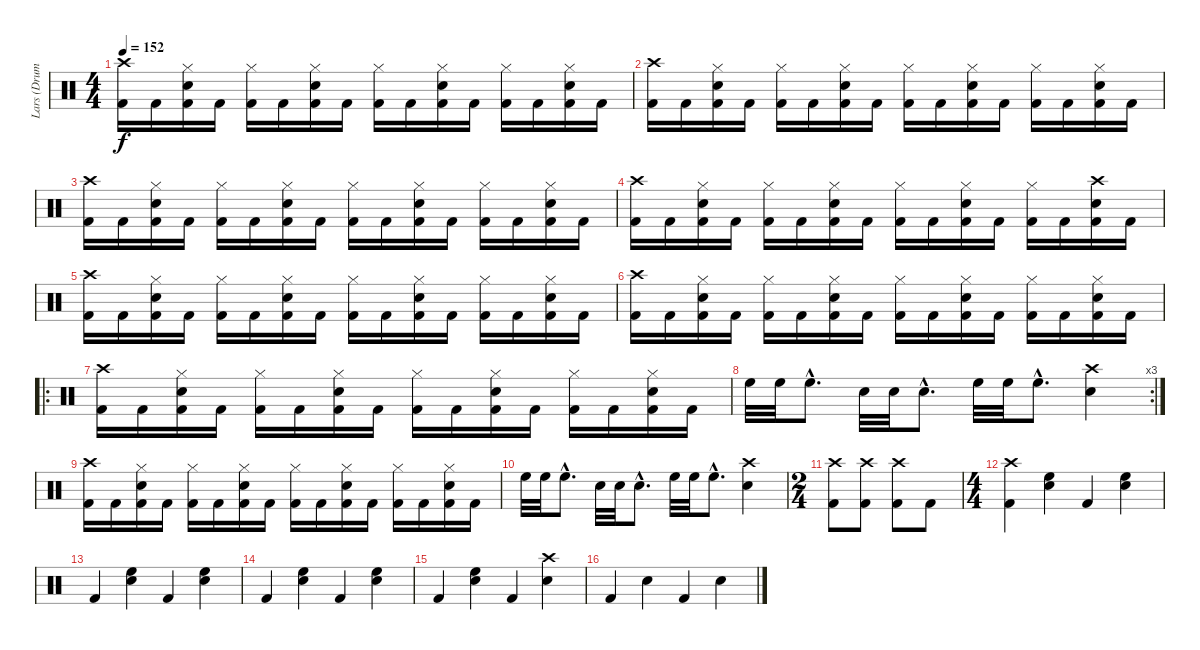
\track ("Lars (Drums)" "Lars (Drum") {instrument percussion}
\staff {score}
\articulation defaults
\ts (4 4)
\tempo 152
\clef neutral
\ks c
("Crash high (hit)" "Kick (hit) 2").16{dy f} "Kick (hit) 2".16 ("Hi-Hat (closed)" "Kick (hit) 2" "Snare (hit) 2").16 "Kick (hit) 2".16 ("Hi-Hat (closed)" "Kick (hit) 2").16 "Kick (hit) 2".16 ("Hi-Hat (closed)" "Kick (hit) 2" "Snare (hit) 2").16 "Kick (hit) 2".16 ("Hi-Hat (closed)" "Kick (hit) 2").16 "Kick (hit) 2".16 ("Hi-Hat (closed)" "Kick (hit) 2" "Snare (hit) 2").16 "Kick (hit) 2".16 ("Hi-Hat (closed)" "Kick (hit) 2").16 "Kick (hit) 2".16 ("Hi-Hat (closed)" "Kick (hit) 2" "Snare (hit) 2").16 "Kick (hit) 2".16 |
("Crash high (hit)" "Kick (hit) 2").16 "Kick (hit) 2".16 ("Hi-Hat (closed)" "Kick (hit) 2" "Snare (hit) 2").16 "Kick (hit) 2".16 ("Hi-Hat (closed)" "Kick (hit) 2").16 "Kick (hit) 2".16 ("Hi-Hat (closed)" "Kick (hit) 2" "Snare (hit) 2").16 "Kick (hit) 2".16 ("Hi-Hat (closed)" "Kick (hit) 2").16 "Kick (hit) 2".16 ("Hi-Hat (closed)" "Kick (hit) 2" "Snare (hit) 2").16 "Kick (hit) 2".16 ("Hi-Hat (closed)" "Kick (hit) 2").16 "Kick (hit) 2".16 ("Hi-Hat (closed)" "Kick (hit) 2" "Snare (hit) 2").16 "Kick (hit) 2".16 |
("Crash high (hit)" "Kick (hit) 2").16 "Kick (hit) 2".16 ("Hi-Hat (closed)" "Kick (hit) 2" "Snare (hit) 2").16 "Kick (hit) 2".16 ("Hi-Hat (closed)" "Kick (hit) 2").16 "Kick (hit) 2".16 ("Hi-Hat (closed)" "Kick (hit) 2" "Snare (hit) 2").16 "Kick (hit) 2".16 ("Hi-Hat (closed)" "Kick (hit) 2").16 "Kick (hit) 2".16 ("Hi-Hat (closed)" "Kick (hit) 2" "Snare (hit) 2").16 "Kick (hit) 2".16 ("Hi-Hat (closed)" "Kick (hit) 2").16 "Kick (hit) 2".16 ("Hi-Hat (closed)" "Kick (hit) 2" "Snare (hit) 2").16 "Kick (hit) 2".16 |
("Crash high (hit)" "Kick (hit) 2").16 "Kick (hit) 2".16 ("Hi-Hat (closed)" "Kick (hit) 2" "Snare (hit) 2").16 "Kick (hit) 2".16 ("Hi-Hat (closed)" "Kick (hit) 2").16 "Kick (hit) 2".16 ("Hi-Hat (closed)" "Kick (hit) 2" "Snare (hit) 2").16 "Kick (hit) 2".16 ("Hi-Hat (closed)" "Kick (hit) 2").16 "Kick (hit) 2".16 ("Hi-Hat (closed)" "Kick (hit) 2" "Snare (hit) 2").16 "Kick (hit) 2".16 ("Hi-Hat (closed)" "Kick (hit) 2").16 "Kick (hit) 2".16 ("Crash high (hit)" "Kick (hit) 2" "Snare (hit) 2").16 "Kick (hit) 2".16 |
("Crash high (hit)" "Kick (hit) 2").16 "Kick (hit) 2".16 ("Hi-Hat (closed)" "Kick (hit) 2" "Snare (hit) 2").16 "Kick (hit) 2".16 ("Hi-Hat (closed)" "Kick (hit) 2").16 "Kick (hit) 2".16 ("Hi-Hat (closed)" "Kick (hit) 2" "Snare (hit) 2").16 "Kick (hit) 2".16 ("Hi-Hat (closed)" "Kick (hit) 2").16 "Kick (hit) 2".16 ("Hi-Hat (closed)" "Kick (hit) 2" "Snare (hit) 2").16 "Kick (hit) 2".16 ("Hi-Hat (closed)" "Kick (hit) 2").16 "Kick (hit) 2".16 ("Hi-Hat (closed)" "Kick (hit) 2" "Snare (hit) 2").16 "Kick (hit) 2".16 |
("Crash high (hit)" "Kick (hit) 2").16 "Kick (hit) 2".16 ("Hi-Hat (closed)" "Kick (hit) 2" "Snare (hit) 2").16 "Kick (hit) 2".16 ("Hi-Hat (closed)" "Kick (hit) 2").16 "Kick (hit) 2".16 ("Hi-Hat (closed)" "Kick (hit) 2" "Snare (hit) 2").16 "Kick (hit) 2".16 ("Hi-Hat (closed)" "Kick (hit) 2").16 "Kick (hit) 2".16 ("Hi-Hat (closed)" "Kick (hit) 2" "Snare (hit) 2").16 "Kick (hit) 2".16 ("Hi-Hat (closed)" "Kick (hit) 2").16 "Kick (hit) 2".16 ("Hi-Hat (closed)" "Kick (hit) 2" "Snare (hit) 2").16 "Kick (hit) 2".16 |
\ro
("Crash high (hit)" "Kick (hit) 2").16 "Kick (hit) 2".16 ("Hi-Hat (closed)" "Kick (hit) 2" "Snare (hit) 2").16 "Kick (hit) 2".16 ("Hi-Hat (closed)" "Kick (hit) 2").16 "Kick (hit) 2".16 ("Hi-Hat (closed)" "Kick (hit) 2" "Snare (hit) 2").16 "Kick (hit) 2".16 ("Hi-Hat (closed)" "Kick (hit) 2").16 "Kick (hit) 2".16 ("Hi-Hat (closed)" "Kick (hit) 2" "Snare (hit) 2").16 "Kick (hit) 2".16 ("Hi-Hat (closed)" "Kick (hit) 2").16 "Kick (hit) 2".16 ("Hi-Hat (closed)" "Kick (hit) 2" "Snare (hit) 2").16 "Kick (hit) 2".16 |
\rc 3 "High Floor Tom (hit)".32 "High Floor Tom (hit)".32 "High Floor Tom (hit)"{hac}.8{d} "Snare (hit) 2".32 "Snare (hit) 2".32 "Snare (hit) 2"{hac}.8{d} "High Floor Tom (hit)".32 "High Floor Tom (hit)".32 "High Floor Tom (hit)"{hac}.8{d}
("Crash high (hit)" "Snare (hit) 2").4 |
("Crash high (hit)" "Kick (hit) 2").16 "Kick (hit) 2".16 ("Hi-Hat (closed)" "Kick (hit) 2" "Snare (hit) 2").16 "Kick (hit) 2".16 ("Hi-Hat (closed)" "Kick (hit) 2").16 "Kick (hit) 2".16 ("Hi-Hat (closed)" "Kick (hit) 2" "Snare (hit) 2").16 "Kick (hit) 2".16 ("Hi-Hat (closed)" "Kick (hit) 2").16 "Kick (hit) 2".16 ("Hi-Hat (closed)" "Kick (hit) 2" "Snare (hit) 2").16 "Kick (hit) 2".16 ("Hi-Hat (closed)" "Kick (hit) 2").16 "Kick (hit) 2".16 ("Hi-Hat (closed)" "Kick (hit) 2" "Snare (hit) 2").16 "Kick (hit) 2".16 |
"High Floor Tom (hit)".32 "High Floor Tom (hit)".32 "High Floor Tom (hit)"{hac}.8{d} "Snare (hit) 2".32 "Snare (hit) 2".32 "Snare (hit) 2"{hac}.8{d} "High Floor Tom (hit)".32 "High Floor Tom (hit)".32 "High Floor Tom (hit)"{hac}.8{d} ("Crash high (hit)" "Snare (hit) 2").4 |
\ts (2 4)
("Crash high (hit)" "Kick (hit) 2").8 ("Crash high (hit)" "Kick (hit) 2").8 ("Crash high (hit)" "Kick (hit) 2").8 "Kick (hit) 2".8 |
\ts (4 4)
("Crash high (hit)" "Kick (hit) 2").4 ("Snare (hit) 2" "High Floor Tom (hit)").4 "Kick (hit) 2".4 ("Snare (hit) 2" "High Floor Tom (hit)").4 |
"Kick (hit) 2".4 ("Snare (hit) 2" "High Floor Tom (hit)").4 "Kick (hit) 2".4 ("Snare (hit) 2" "High Floor Tom (hit)").4 |
"Kick (hit) 2".4 ("Snare (hit) 2" "High Floor Tom (hit)").4 "Kick (hit) 2".4 ("Snare (hit) 2" "High Floor Tom (hit)").4 |
"Kick (hit) 2".4 ("Snare (hit) 2" "High Floor Tom (hit)").4 "Kick (hit) 2".4 ("Crash high (hit)" "Snare (hit) 2").4 |
"Kick (hit) 2".4 "Snare (hit) 2".4 "Kick (hit) 2".4 "Snare (hit) 2".4
